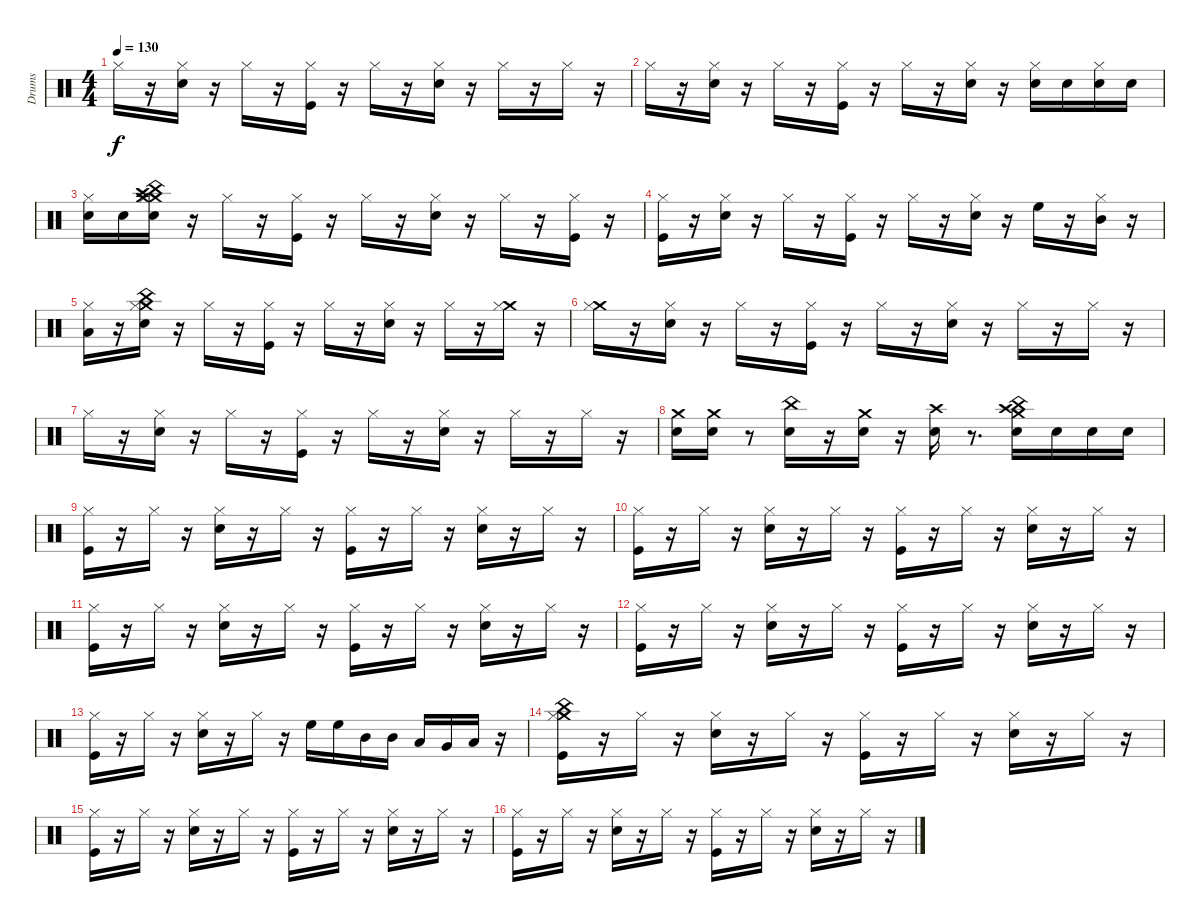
\track ("Drums" "Drums") {instrument percussion}
\staff {score}
\articulation defaults
\ts (4 4)
\tempo 130
\clef neutral
\ks c "Hi-Hat (closed)".16{dy f}
r.16 ("Electric Snare (hit)" "Hi-Hat (closed)").16 r.16 "Hi-Hat (closed)".16 r.16 ("Kick (hit)" "Hi-Hat (closed)").16 r.16 "Hi-Hat (closed)".16 r.16 ("Electric Snare (hit)" "Hi-Hat (closed)").16 r.16 "Hi-Hat (closed)".16 r.16 "Hi-Hat (closed)".16 r.16 |
"Hi-Hat (closed)".16 r.16 ("Electric Snare (hit)" "Hi-Hat (closed)").16 r.16 "Hi-Hat (closed)".16 r.16 ("Kick (hit)" "Hi-Hat (closed)").16 r.16 "Hi-Hat (closed)".16 r.16 ("Electric Snare (hit)" "Hi-Hat (closed)").16 r.16 ("Electric Snare (hit)" "Hi-Hat (closed)").16 "Electric Snare (hit)".16 ("Electric Snare (hit)" "Hi-Hat (closed)").16 "Electric Snare (hit)".16 |
("Electric Snare (hit)" "Hi-Hat (closed)").16 "Electric Snare (hit)".16 ("Crash high (hit)" "China (hit)" "Crash medium (hit)" "Crash medium (hit)" "Electric Snare (hit)" "Hi-Hat (closed)").16 r.16 "Hi-Hat (closed)".16 r.16 ("Kick (hit)" "Hi-Hat (closed)").16 r.16 "Hi-Hat (closed)".16 r.16 ("Electric Snare (hit)" "Hi-Hat (closed)").16 r.16 "Hi-Hat (closed)".16 r.16 ("Kick (hit)" "Hi-Hat (closed)").16 r.16 |
("Kick (hit)" "Hi-Hat (closed)").16 r.16 ("Electric Snare (hit)" "Hi-Hat (closed)").16 r.16 "Hi-Hat (closed)".16 r.16 ("Kick (hit)" "Hi-Hat (closed)").16 r.16 "Hi-Hat (closed)".16 r.16 ("Electric Snare (hit)" "Hi-Hat (closed)").16 r.16 "High Floor Tom (hit)".16 r.16 ("Mid Tom (hit)" "Hi-Hat (closed)").16 r.16 |
("Low Tom (hit)" "Hi-Hat (closed)").16 r.16 ("China (hit)" "Crash medium (hit)" "Electric Snare (hit)" "Hi-Hat (closed)").16 r.16 "Hi-Hat (closed)".16 r.16 ("Kick (hit)" "Hi-Hat (closed)").16 r.16 "Hi-Hat (closed)".16 r.16 ("Electric Snare (hit)" "Hi-Hat (closed)").16 r.16 "Hi-Hat (closed)".16 r.16 ("Crash medium (hit)" "Hi-Hat (closed)").16 r.16 |
("Crash medium (hit)" "Hi-Hat (closed)").16 r.16 ("Electric Snare (hit)" "Hi-Hat (closed)").16 r.16 "Hi-Hat (closed)".16 r.16 ("Kick (hit)" "Hi-Hat (closed)").16 r.16 "Hi-Hat (closed)".16 r.16 ("Electric Snare (hit)" "Hi-Hat (closed)").16 r.16 "Hi-Hat (closed)".16 r.16 "Hi-Hat (closed)".16 r.16 |
"Hi-Hat (closed)".16 r.16 ("Electric Snare (hit)" "Hi-Hat (closed)").16 r.16 "Hi-Hat (closed)".16 r.16 ("Kick (hit)" "Hi-Hat (closed)").16 r.16 "Hi-Hat (closed)".16 r.16 ("Electric Snare (hit)" "Hi-Hat (closed)").16 r.16 "Hi-Hat (closed)".16 r.16 "Hi-Hat (closed)".16 r.16 |
("Crash medium (hit)" "Electric Snare (hit)").16 ("Crash medium (hit)" "Electric Snare (hit)").16 r.8 ("China (hit)" "Electric Snare (hit)").16 r.16 ("Crash medium (hit)" "Electric Snare (hit)").16 r.16 ("Crash high (hit)" "Electric Snare (hit)").16 r.8{d} ("Crash high (hit)" "Crash medium (hit)" "China (hit)" "Electric Snare (hit)").16 "Electric Snare (hit)".16 "Electric Snare (hit)".16 "Electric Snare (hit)".16 |
("Kick (hit)" "Hi-Hat (closed)").16 r.16 "Hi-Hat (closed)".16 r.16 ("Snare (hit) 2" "Hi-Hat (closed)").16 r.16 "Hi-Hat (closed)".16 r.16 ("Kick (hit)" "Hi-Hat (closed)").16 r.16 "Hi-Hat (closed)".16 r.16 ("Snare (hit) 2" "Hi-Hat (closed)").16 r.16 "Hi-Hat (closed)".16 r.16 |
("Kick (hit)" "Hi-Hat (closed)").16 r.16 "Hi-Hat (closed)".16 r.16 ("Snare (hit) 2" "Hi-Hat (closed)").16 r.16 "Hi-Hat (closed)".16 r.16 ("Kick (hit)" "Hi-Hat (closed)").16 r.16 "Hi-Hat (closed)".16 r.16 ("Snare (hit) 2" "Hi-Hat (closed)").16 r.16 "Hi-Hat (closed)".16 r.16 |
("Kick (hit)" "Hi-Hat (closed)").16 r.16 "Hi-Hat (closed)".16 r.16 ("Snare (hit) 2" "Hi-Hat (closed)").16 r.16 "Hi-Hat (closed)".16 r.16 ("Kick (hit)" "Hi-Hat (closed)").16 r.16 "Hi-Hat (closed)".16 r.16 ("Snare (hit) 2" "Hi-Hat (closed)").16 r.16 "Hi-Hat (closed)".16 r.16 |
("Kick (hit)" "Hi-Hat (closed)").16 r.16 "Hi-Hat (closed)".16 r.16 ("Snare (hit) 2" "Hi-Hat (closed)").16 r.16 "Hi-Hat (closed)".16 r.16 ("Kick (hit)" "Hi-Hat (closed)").16 r.16 "Hi-Hat (closed)".16 r.16 ("Snare (hit) 2" "Hi-Hat (closed)").16 r.16 "Hi-Hat (closed)".16 r.16 |
("Kick (hit)" "Hi-Hat (closed)").16 r.16 "Hi-Hat (closed)".16 r.16 ("Snare (hit) 2" "Hi-Hat (closed)").16 r.16 "Hi-Hat (closed)".16 r.16 "High Floor Tom (hit)".16 "High Floor Tom (hit)".16 "Mid Tom (hit)".16 "Mid Tom (hit)".16 "Low Tom (hit)".16 "Very Low Tom (hit)".16 "Low Floor Tom (hit)".16 r.16 |
("China (hit)" "Crash medium (hit)" "Kick (hit)" "Hi-Hat (closed)").16 r.16 "Hi-Hat (closed)".16 r.16 ("Snare (hit) 2" "Hi-Hat (closed)").16 r.16 "Hi-Hat (closed)".16 r.16 ("Kick (hit)" "Hi-Hat (closed)").16 r.16 "Hi-Hat (closed)".16 r.16 ("Snare (hit) 2" "Hi-Hat (closed)").16 r.16 "Hi-Hat (closed)".16 r.16 |
("Kick (hit)" "Hi-Hat (closed)").16 r.16 "Hi-Hat (closed)".16 r.16 ("Snare (hit) 2" "Hi-Hat (closed)").16 r.16 "Hi-Hat (closed)".16 r.16 ("Kick (hit)" "Hi-Hat (closed)").16 r.16 "Hi-Hat (closed)".16 r.16 ("Snare (hit) 2" "Hi-Hat (closed)").16 r.16 "Hi-Hat (closed)".16 r.16 |
("Kick (hit)" "Hi-Hat (closed)").16 r.16 "Hi-Hat (closed)".16 r.16 ("Snare (hit) 2" "Hi-Hat (closed)").16 r.16 "Hi-Hat (closed)".16 r.16 ("Kick (hit)" "Hi-Hat (closed)").16 r.16 "Hi-Hat (closed)".16 r.16 ("Snare (hit) 2" "Hi-Hat (closed)").16 r.16 "Hi-Hat (closed)".16 r.16
